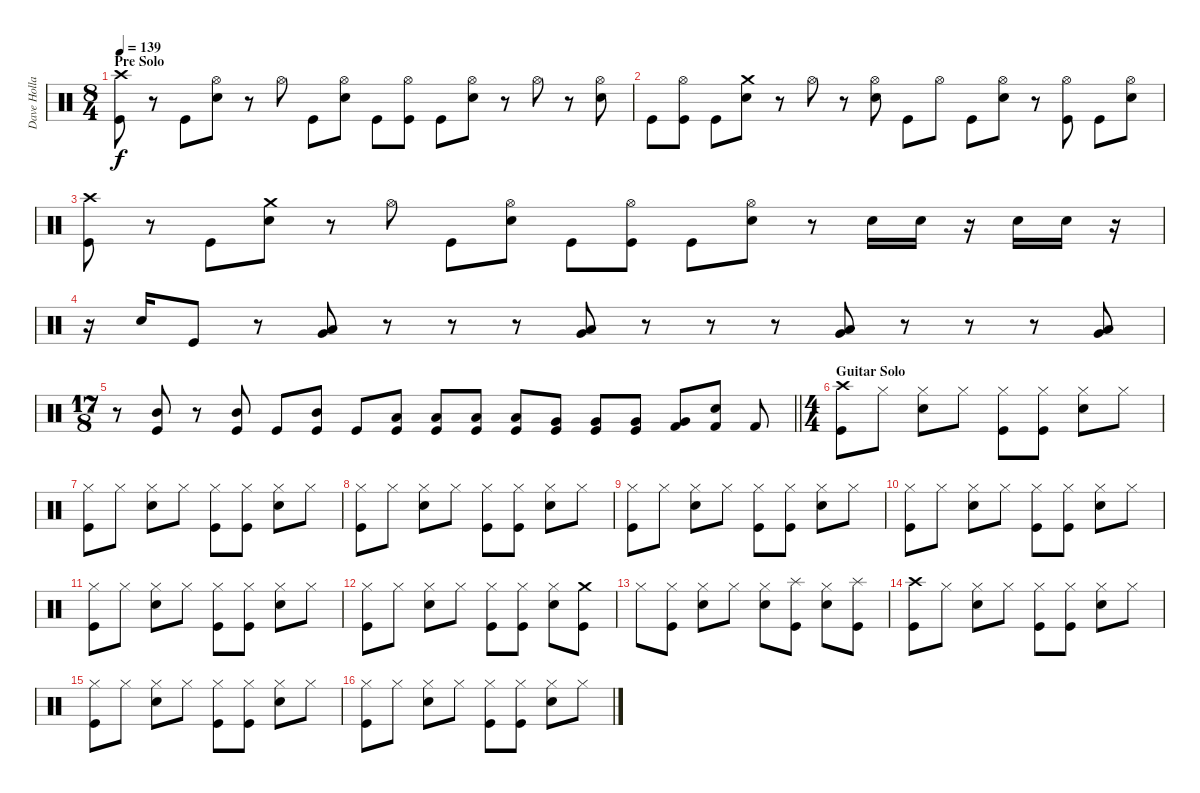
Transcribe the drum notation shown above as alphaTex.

\track ("Dave Holland" "Dave Holla") {instrument percussion}
\staff {score}
\articulation defaults
\ts (8 4)
\section ("" "Pre Solo")
\tempo 139
\clef neutral
\ks c
("Crash high (hit)" "Kick (hit)").8{dy f} r.8 "Kick (hit)".8 ("Hi-Hat (open)" "Electric Snare (hit)").8 r.8 "Hi-Hat (open)".8 "Kick (hit)".8 ("Hi-Hat (open)" "Electric Snare (hit)").8 "Kick (hit)".8 ("Hi-Hat (open)" "Kick (hit)").8 "Kick (hit)".8 ("Hi-Hat (open)" "Electric Snare (hit)").8 r.8 "Hi-Hat (open)".8 r.8 ("Hi-Hat (open)" "Electric Snare (hit)").8 |
"Kick (hit)".8 ("Hi-Hat (open)" "Kick (hit)").8 "Kick (hit)".8 ("Crash medium (hit)" "Electric Snare (hit)").8 r.8 "Hi-Hat (open)".8 r.8 ("Hi-Hat (open)" "Electric Snare (hit)").8 "Kick (hit)".8 "Hi-Hat (open)".8 "Kick (hit)".8 ("Hi-Hat (open)" "Electric Snare (hit)").8 r.8 ("Hi-Hat (open)" "Kick (hit)").8 "Kick (hit)".8 ("Hi-Hat (open)" "Electric Snare (hit)").8 |
("Crash high (hit)" "Kick (hit)").8 r.8 "Kick (hit)".8 ("Crash medium (hit)" "Electric Snare (hit)").8 r.8 "Hi-Hat (open)".8 "Kick (hit)".8 ("Hi-Hat (open)" "Electric Snare (hit)").8 "Kick (hit)".8 ("Hi-Hat (open)" "Kick (hit)").8 "Kick (hit)".8 ("Hi-Hat (open)" "Electric Snare (hit)").8 r.8 "Electric Snare (hit)".16 "Electric Snare (hit)".16 r.16 "Electric Snare (hit)".16 "Electric Snare (hit)".16 r.16 |
r.16 "Electric Snare (hit)".16 "Kick (hit)".8 r.8 ("Low Tom (hit)" "Very Low Tom (hit)").8 r.8 r.8 r.8 ("Low Tom (hit)" "Very Low Tom (hit)").8 r.8 r.8 r.8 ("Low Tom (hit)" "Very Low Tom (hit)").8 r.8 r.8 r.8 ("Low Tom (hit)" "Very Low Tom (hit)").8 |
\ts (17 8)
\barLineRight lightlight
r.8 ("Mid Tom (hit)" "Kick (hit)").8 r.8 ("Mid Tom (hit)" "Kick (hit)").8 "Kick (hit)".8 ("Mid Tom (hit)" "Kick (hit)").8 "Kick (hit)".8 ("Low Tom (hit)" "Kick (hit)").8 ("Low Tom (hit)" "Kick (hit)").8 ("Low Tom (hit)" "Kick (hit)").8 ("Low Tom (hit)" "Kick (hit)").8 ("Very Low Tom (hit)" "Kick (hit)").8 ("Very Low Tom (hit)" "Kick (hit)").8 ("Very Low Tom (hit)" "Kick (hit)").8 ("Very Low Tom (hit)" "Kick (hit) 2").8 ("Electric Snare (hit)" "Kick (hit) 2").8 "Kick (hit) 2".8 |
\ts (4 4)
\section ("" "Guitar Solo")
("Crash high (hit)" "Kick (hit)").8 "Hi-Hat (closed)".8 ("Hi-Hat (closed)" "Electric Snare (hit)").8 "Hi-Hat (closed)".8 ("Hi-Hat (closed)" "Kick (hit)").8 ("Hi-Hat (closed)" "Kick (hit)").8 ("Hi-Hat (closed)" "Electric Snare (hit)").8 "Hi-Hat (closed)".8 |
("Hi-Hat (closed)" "Kick (hit)").8 "Hi-Hat (closed)".8 ("Hi-Hat (closed)" "Electric Snare (hit)").8 "Hi-Hat (closed)".8 ("Hi-Hat (closed)" "Kick (hit)").8 ("Hi-Hat (closed)" "Kick (hit)").8 ("Hi-Hat (closed)" "Electric Snare (hit)").8 "Hi-Hat (closed)".8 |
("Hi-Hat (closed)" "Kick (hit)").8 "Hi-Hat (closed)".8 ("Hi-Hat (closed)" "Electric Snare (hit)").8 "Hi-Hat (closed)".8 ("Hi-Hat (closed)" "Kick (hit)").8 ("Hi-Hat (closed)" "Kick (hit)").8 ("Hi-Hat (closed)" "Electric Snare (hit)").8 "Hi-Hat (closed)".8 |
("Hi-Hat (closed)" "Kick (hit)").8 "Hi-Hat (closed)".8 ("Hi-Hat (closed)" "Electric Snare (hit)").8 "Hi-Hat (closed)".8 ("Hi-Hat (closed)" "Kick (hit)").8 ("Hi-Hat (closed)" "Kick (hit)").8 ("Hi-Hat (closed)" "Electric Snare (hit)").8 "Hi-Hat (closed)".8 |
("Hi-Hat (closed)" "Kick (hit)").8 "Hi-Hat (closed)".8 ("Hi-Hat (closed)" "Electric Snare (hit)").8 "Hi-Hat (closed)".8 ("Hi-Hat (closed)" "Kick (hit)").8 ("Hi-Hat (closed)" "Kick (hit)").8 ("Hi-Hat (closed)" "Electric Snare (hit)").8 "Hi-Hat (closed)".8 |
("Hi-Hat (closed)" "Kick (hit)").8 "Hi-Hat (closed)".8 ("Hi-Hat (closed)" "Electric Snare (hit)").8 "Hi-Hat (closed)".8 ("Hi-Hat (closed)" "Kick (hit)").8 ("Hi-Hat (closed)" "Kick (hit)").8 ("Hi-Hat (closed)" "Electric Snare (hit)").8 "Hi-Hat (closed)".8 |
("Hi-Hat (closed)" "Kick (hit)").8 "Hi-Hat (closed)".8 ("Hi-Hat (closed)" "Electric Snare (hit)").8 "Hi-Hat (closed)".8 ("Hi-Hat (closed)" "Kick (hit)").8 ("Hi-Hat (closed)" "Kick (hit)").8 ("Hi-Hat (closed)" "Electric Snare (hit)").8 ("Crash medium (hit)" "Kick (hit)").8 |
"Hi-Hat (closed)".8 ("Hi-Hat (closed)" "Kick (hit)").8 ("Hi-Hat (closed)" "Electric Snare (hit)").8 "Hi-Hat (closed)".8 ("Hi-Hat (closed)" "Electric Snare (hit)").8 ("Splash (hit)" "Kick (hit)").8 ("Hi-Hat (closed)" "Electric Snare (hit)").8 ("Splash (hit)" "Kick (hit)").8 |
("Crash high (hit)" "Kick (hit)").8 "Hi-Hat (closed)".8 ("Hi-Hat (closed)" "Electric Snare (hit)").8 "Hi-Hat (closed)".8 ("Hi-Hat (closed)" "Kick (hit)").8 ("Hi-Hat (closed)" "Kick (hit)").8 ("Hi-Hat (closed)" "Electric Snare (hit)").8 "Hi-Hat (closed)".8 |
("Hi-Hat (closed)" "Kick (hit)").8 "Hi-Hat (closed)".8 ("Hi-Hat (closed)" "Electric Snare (hit)").8 "Hi-Hat (closed)".8 ("Hi-Hat (closed)" "Kick (hit)").8 ("Hi-Hat (closed)" "Kick (hit)").8 ("Hi-Hat (closed)" "Electric Snare (hit)").8 "Hi-Hat (closed)".8 |
("Hi-Hat (closed)" "Kick (hit)").8 "Hi-Hat (closed)".8 ("Hi-Hat (closed)" "Electric Snare (hit)").8 "Hi-Hat (closed)".8 ("Hi-Hat (closed)" "Kick (hit)").8 ("Hi-Hat (closed)" "Kick (hit)").8 ("Hi-Hat (closed)" "Electric Snare (hit)").8 "Hi-Hat (closed)".8
